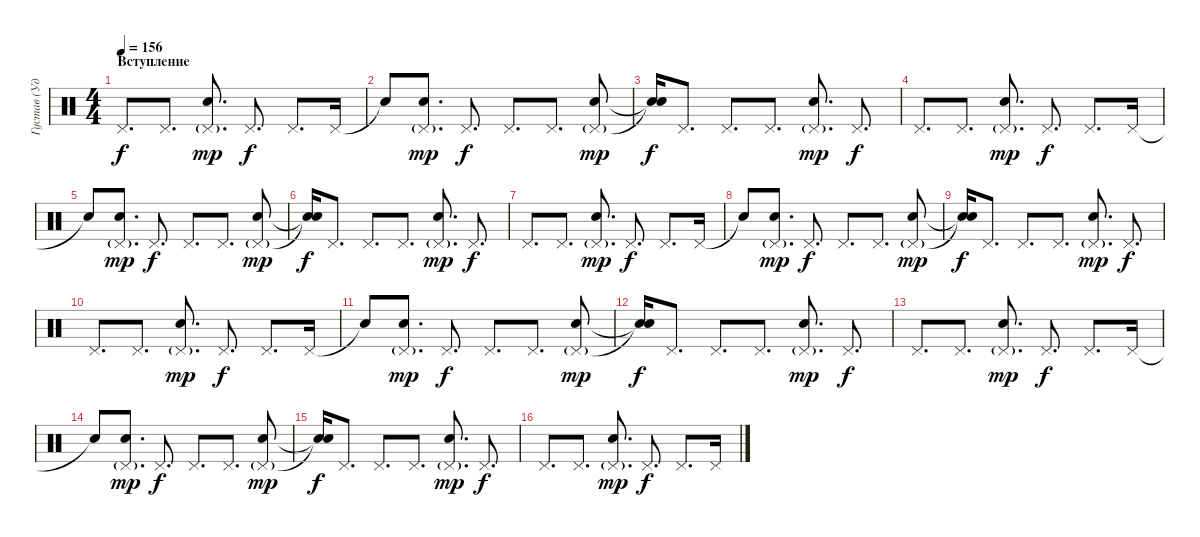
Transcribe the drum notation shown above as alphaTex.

\track ("Густав (Ударные)" "Густав (Уд") {instrument percussion}
\staff {score}
\articulation defaults
\ts (4 4)
\section ("" "Вступление")
\tempo 156
\clef neutral
\ks c "Pedal Hi-Hat (hit)".8{d dy f} "Pedal Hi-Hat (hit)".8{d}
("Pedal Hi-Hat (hit)"{g} "Electric Snare (hit)").8{d dy mp} "Pedal Hi-Hat (hit)".8{d dy f} "Pedal Hi-Hat (hit)".8{d} "Pedal Hi-Hat (hit)".16 |
"Snare (hit)"{t}.8 ("Pedal Hi-Hat (hit)"{g} "Electric Snare (hit)").8{d dy mp} "Pedal Hi-Hat (hit)".8{d dy f} "Pedal Hi-Hat (hit)".8{d} "Pedal Hi-Hat (hit)".8{d} ("Pedal Hi-Hat (hit)"{g} "Electric Snare (hit)").8{dy mp} |
("Snare (hit)"{t} "Snare (hit)"{t}).16{dy f} "Pedal Hi-Hat (hit)".8{d} "Pedal Hi-Hat (hit)".8{d} "Pedal Hi-Hat (hit)".8{d} ("Pedal Hi-Hat (hit)"{g} "Electric Snare (hit)").8{d dy mp} "Pedal Hi-Hat (hit)".8{d dy f} |
"Pedal Hi-Hat (hit)".8{d} "Pedal Hi-Hat (hit)".8{d} ("Pedal Hi-Hat (hit)"{g} "Electric Snare (hit)").8{d dy mp} "Pedal Hi-Hat (hit)".8{d dy f} "Pedal Hi-Hat (hit)".8{d} "Pedal Hi-Hat (hit)".16 |
"Snare (hit)"{t}.8 ("Pedal Hi-Hat (hit)"{g} "Electric Snare (hit)").8{d dy mp} "Pedal Hi-Hat (hit)".8{d dy f} "Pedal Hi-Hat (hit)".8{d} "Pedal Hi-Hat (hit)".8{d} ("Pedal Hi-Hat (hit)"{g} "Electric Snare (hit)").8{dy mp} |
("Snare (hit)"{t} "Snare (hit)"{t}).16{dy f} "Pedal Hi-Hat (hit)".8{d} "Pedal Hi-Hat (hit)".8{d} "Pedal Hi-Hat (hit)".8{d} ("Pedal Hi-Hat (hit)"{g} "Electric Snare (hit)").8{d dy mp} "Pedal Hi-Hat (hit)".8{d dy f} |
"Pedal Hi-Hat (hit)".8{d} "Pedal Hi-Hat (hit)".8{d} ("Pedal Hi-Hat (hit)"{g} "Electric Snare (hit)").8{d dy mp} "Pedal Hi-Hat (hit)".8{d dy f} "Pedal Hi-Hat (hit)".8{d} "Pedal Hi-Hat (hit)".16 |
"Snare (hit)"{t}.8 ("Pedal Hi-Hat (hit)"{g} "Electric Snare (hit)").8{d dy mp} "Pedal Hi-Hat (hit)".8{d dy f} "Pedal Hi-Hat (hit)".8{d} "Pedal Hi-Hat (hit)".8{d} ("Pedal Hi-Hat (hit)"{g} "Electric Snare (hit)").8{dy mp} |
("Snare (hit)"{t} "Snare (hit)"{t}).16{dy f} "Pedal Hi-Hat (hit)".8{d} "Pedal Hi-Hat (hit)".8{d} "Pedal Hi-Hat (hit)".8{d} ("Pedal Hi-Hat (hit)"{g} "Electric Snare (hit)").8{d dy mp} "Pedal Hi-Hat (hit)".8{d dy f} |
"Pedal Hi-Hat (hit)".8{d} "Pedal Hi-Hat (hit)".8{d} ("Pedal Hi-Hat (hit)"{g} "Electric Snare (hit)").8{d dy mp} "Pedal Hi-Hat (hit)".8{d dy f} "Pedal Hi-Hat (hit)".8{d} "Pedal Hi-Hat (hit)".16 |
"Snare (hit)"{t}.8 ("Pedal Hi-Hat (hit)"{g} "Electric Snare (hit)").8{d dy mp} "Pedal Hi-Hat (hit)".8{d dy f} "Pedal Hi-Hat (hit)".8{d} "Pedal Hi-Hat (hit)".8{d} ("Pedal Hi-Hat (hit)"{g} "Electric Snare (hit)").8{dy mp} |
("Snare (hit)"{t} "Snare (hit)"{t}).16{dy f} "Pedal Hi-Hat (hit)".8{d} "Pedal Hi-Hat (hit)".8{d} "Pedal Hi-Hat (hit)".8{d} ("Pedal Hi-Hat (hit)"{g} "Electric Snare (hit)").8{d dy mp} "Pedal Hi-Hat (hit)".8{d dy f} |
"Pedal Hi-Hat (hit)".8{d} "Pedal Hi-Hat (hit)".8{d} ("Pedal Hi-Hat (hit)"{g} "Electric Snare (hit)").8{d dy mp} "Pedal Hi-Hat (hit)".8{d dy f} "Pedal Hi-Hat (hit)".8{d} "Pedal Hi-Hat (hit)".16 |
"Snare (hit)"{t}.8 ("Pedal Hi-Hat (hit)"{g} "Electric Snare (hit)").8{d dy mp} "Pedal Hi-Hat (hit)".8{d dy f} "Pedal Hi-Hat (hit)".8{d} "Pedal Hi-Hat (hit)".8{d} ("Pedal Hi-Hat (hit)"{g} "Electric Snare (hit)").8{dy mp} |
("Snare (hit)"{t} "Snare (hit)"{t}).16{dy f} "Pedal Hi-Hat (hit)".8{d} "Pedal Hi-Hat (hit)".8{d} "Pedal Hi-Hat (hit)".8{d} ("Pedal Hi-Hat (hit)"{g} "Electric Snare (hit)").8{d dy mp} "Pedal Hi-Hat (hit)".8{d dy f} |
"Pedal Hi-Hat (hit)".8{d} "Pedal Hi-Hat (hit)".8{d} ("Pedal Hi-Hat (hit)"{g} "Electric Snare (hit)").8{d dy mp} "Pedal Hi-Hat (hit)".8{d dy f} "Pedal Hi-Hat (hit)".8{d} "Pedal Hi-Hat (hit)".16
